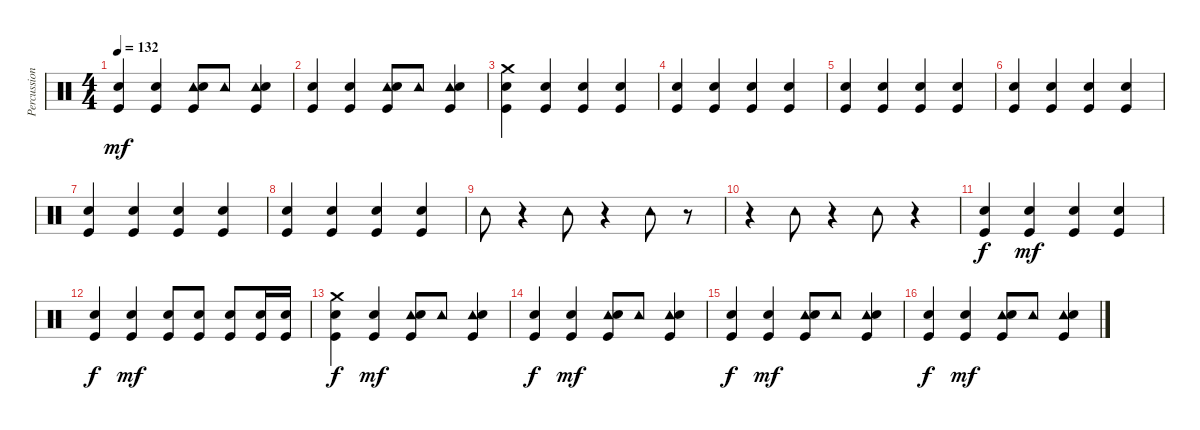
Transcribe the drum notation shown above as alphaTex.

\track ("Percussion" "Percussion") {instrument percussion}
\staff {score}
\articulation defaults
\ts (4 4)
\tempo 132
\clef neutral
\ks c
("Kick (hit)" "Snare (hit) 2").4{dy mf} ("Kick (hit)" "Snare (hit) 2").4 ("Tambourine (hit)" "Kick (hit)" "Snare (hit) 2").8 "Tambourine (hit)".8 ("Tambourine (hit)" "Kick (hit)" "Snare (hit) 2").4 |
("Kick (hit)" "Snare (hit) 2").4 ("Snare (hit) 2" "Kick (hit)").4 ("Tambourine (hit)" "Kick (hit)" "Snare (hit) 2").8 "Tambourine (hit)".8 ("Tambourine (hit)" "Snare (hit) 2" "Kick (hit)").4 |
("Snare (hit) 2" "Crash medium (hit)" "Kick (hit)").4 ("Kick (hit)" "Snare (hit) 2").4 ("Kick (hit)" "Snare (hit) 2").4 ("Kick (hit)" "Snare (hit) 2").4 |
("Kick (hit)" "Snare (hit) 2").4 ("Kick (hit)" "Snare (hit) 2").4 ("Kick (hit)" "Snare (hit) 2").4 ("Kick (hit)" "Snare (hit) 2").4 |
("Kick (hit)" "Snare (hit) 2").4 ("Kick (hit)" "Snare (hit) 2").4 ("Kick (hit)" "Snare (hit) 2").4 ("Kick (hit)" "Snare (hit) 2").4 |
("Kick (hit)" "Snare (hit) 2").4 ("Snare (hit) 2" "Kick (hit)").4 ("Kick (hit)" "Snare (hit) 2").4 ("Snare (hit) 2" "Kick (hit)").4 |
("Kick (hit)" "Snare (hit) 2").4 ("Snare (hit) 2" "Kick (hit)").4 ("Snare (hit) 2" "Kick (hit)").4 ("Snare (hit) 2" "Kick (hit)").4 |
("Snare (hit) 2" "Kick (hit)").4 ("Kick (hit)" "Snare (hit) 2").4 ("Kick (hit)" "Snare (hit) 2").4 ("Kick (hit)" "Snare (hit) 2").4 |
"Tambourine (hit)".8 r.4 "Tambourine (hit)".8 r.4 "Tambourine (hit)".8 r.8 |
r.4 "Tambourine (hit)".8 r.4 "Tambourine (hit)".8 r.4 |
("Snare (hit) 2" "Kick (hit)").4{dy f} ("Snare (hit) 2" "Kick (hit)").4{dy mf} ("Snare (hit) 2" "Kick (hit)").4 ("Kick (hit)" "Snare (hit) 2").4 |
("Kick (hit)" "Snare (hit) 2").4{dy f} ("Kick (hit)" "Snare (hit) 2").4{dy mf} ("Kick (hit)" "Snare (hit) 2").8 ("Kick (hit)" "Snare (hit) 2").8 ("Kick (hit)" "Snare (hit) 2").8 ("Kick (hit)" "Snare (hit) 2").16 ("Kick (hit)" "Snare (hit) 2").16 |
("Crash medium (hit)" "Kick (hit)" "Snare (hit) 2").4{dy f} ("Snare (hit) 2" "Kick (hit)").4{dy mf} ("Tambourine (hit)" "Snare (hit) 2" "Kick (hit)").8 "Tambourine (hit)".8 ("Tambourine (hit)" "Snare (hit) 2" "Kick (hit)").4 |
("Snare (hit) 2" "Kick (hit)").4{dy f} ("Kick (hit)" "Snare (hit) 2").4{dy mf} ("Tambourine (hit)" "Kick (hit)" "Snare (hit) 2").8 "Tambourine (hit)".8 ("Tambourine (hit)" "Kick (hit)" "Snare (hit) 2").4 |
("Kick (hit)" "Snare (hit) 2").4{dy f} ("Kick (hit)" "Snare (hit) 2").4{dy mf} ("Tambourine (hit)" "Kick (hit)" "Snare (hit) 2").8 "Tambourine (hit)".8 ("Tambourine (hit)" "Kick (hit)" "Snare (hit) 2").4 |
("Kick (hit)" "Snare (hit) 2").4{dy f} ("Snare (hit) 2" "Kick (hit)").4{dy mf} ("Tambourine (hit)" "Kick (hit)" "Snare (hit) 2").8 "Tambourine (hit)".8 ("Tambourine (hit)" "Snare (hit) 2" "Kick (hit)").4
